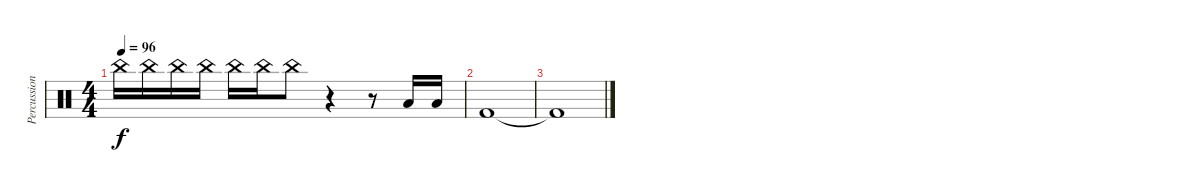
\track ("Percussion" "Percussion") {instrument percussion}
\staff {score}
\articulation defaults
\ts (4 4)
\tempo 96
\clef neutral
\ks c "China (hit)".16{dy f} "China (hit)".16 "China (hit)".16 "China (hit)".16 "China (hit)".16 "China (hit)".16 "China (hit)".8
r.4 r.8 "Low Floor Tom (hit)".16 "Low Floor Tom (hit)".16 |
"Kick (hit) 2".1 |
"Kick (hit) 2"{t}.1
